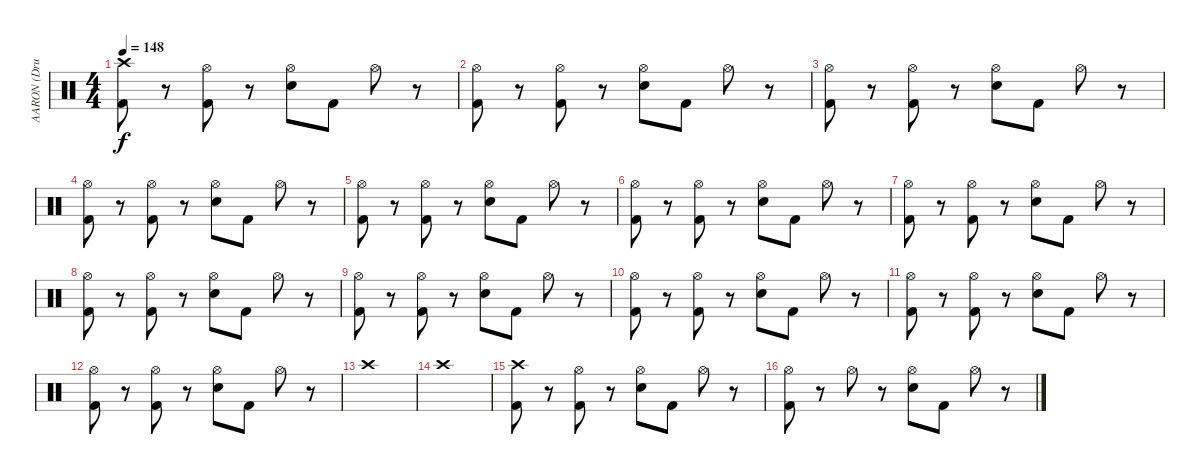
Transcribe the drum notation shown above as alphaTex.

\track ("AARON (Drums)" "AARON (Dru") {instrument percussion}
\staff {score}
\articulation defaults
\ts (4 4)
\tempo 148
\clef neutral
\ks c
("Crash high (hit)" "Kick (hit) 2").8{dy f} r.8 ("Hi-Hat (open)" "Kick (hit) 2").8 r.8 ("Hi-Hat (open)" "Electric Snare (hit)").8 "Kick (hit) 2".8 "Hi-Hat (open)".8 r.8 |
("Hi-Hat (open)" "Kick (hit) 2").8 r.8 ("Hi-Hat (open)" "Kick (hit) 2").8 r.8 ("Hi-Hat (open)" "Electric Snare (hit)").8 "Kick (hit) 2".8 "Hi-Hat (open)".8 r.8 |
("Hi-Hat (open)" "Kick (hit) 2").8 r.8 ("Hi-Hat (open)" "Kick (hit) 2").8 r.8 ("Hi-Hat (open)" "Electric Snare (hit)").8 "Kick (hit) 2".8 "Hi-Hat (open)".8 r.8 |
("Hi-Hat (open)" "Kick (hit) 2").8 r.8 ("Hi-Hat (open)" "Kick (hit) 2").8 r.8 ("Hi-Hat (open)" "Electric Snare (hit)").8 "Kick (hit) 2".8 "Hi-Hat (open)".8 r.8 |
("Hi-Hat (open)" "Kick (hit) 2").8 r.8 ("Hi-Hat (open)" "Kick (hit) 2").8 r.8 ("Hi-Hat (open)" "Electric Snare (hit)").8 "Kick (hit) 2".8 "Hi-Hat (open)".8 r.8 |
("Hi-Hat (open)" "Kick (hit) 2").8 r.8 ("Hi-Hat (open)" "Kick (hit) 2").8 r.8 ("Hi-Hat (open)" "Electric Snare (hit)").8 "Kick (hit) 2".8 "Hi-Hat (open)".8 r.8 |
("Hi-Hat (open)" "Kick (hit) 2").8 r.8 ("Hi-Hat (open)" "Kick (hit) 2").8 r.8 ("Hi-Hat (open)" "Electric Snare (hit)").8 "Kick (hit) 2".8 "Hi-Hat (open)".8 r.8 |
("Hi-Hat (open)" "Kick (hit) 2").8 r.8 ("Hi-Hat (open)" "Kick (hit) 2").8 r.8 ("Hi-Hat (open)" "Electric Snare (hit)").8 "Kick (hit) 2".8 "Hi-Hat (open)".8 r.8 |
("Hi-Hat (open)" "Kick (hit) 2").8 r.8 ("Hi-Hat (open)" "Kick (hit) 2").8 r.8 ("Hi-Hat (open)" "Electric Snare (hit)").8 "Kick (hit) 2".8 "Hi-Hat (open)".8 r.8 |
("Hi-Hat (open)" "Kick (hit) 2").8 r.8 ("Hi-Hat (open)" "Kick (hit) 2").8 r.8 ("Hi-Hat (open)" "Electric Snare (hit)").8 "Kick (hit) 2".8 "Hi-Hat (open)".8 r.8 |
("Hi-Hat (open)" "Kick (hit) 2").8 r.8 ("Hi-Hat (open)" "Kick (hit) 2").8 r.8 ("Hi-Hat (open)" "Electric Snare (hit)").8 "Kick (hit) 2".8 "Hi-Hat (open)".8 r.8 |
("Hi-Hat (open)" "Kick (hit) 2").8 r.8 ("Hi-Hat (open)" "Kick (hit) 2").8 r.8 ("Hi-Hat (open)" "Electric Snare (hit)").8 "Kick (hit) 2".8 "Hi-Hat (open)".8 r.8 |
"Crash high (hit)".1 |
"Crash high (hit)".1 |
("Crash high (hit)" "Kick (hit) 2").8 r.8 ("Hi-Hat (open)" "Kick (hit) 2").8 r.8 ("Hi-Hat (open)" "Electric Snare (hit)").8 "Kick (hit) 2".8 "Hi-Hat (open)".8 r.8 |
("Hi-Hat (open)" "Kick (hit) 2").8 r.8 "Hi-Hat (open)".8 r.8 ("Hi-Hat (open)" "Electric Snare (hit)").8 "Kick (hit) 2".8 "Hi-Hat (open)".8 r.8
